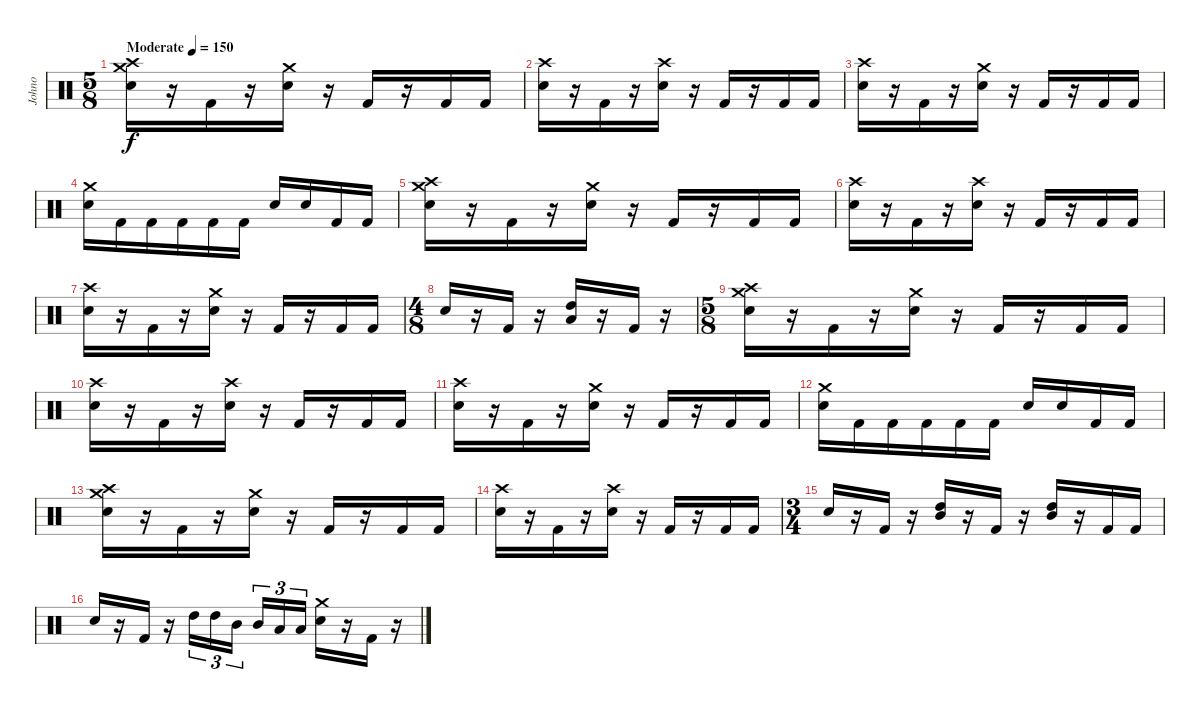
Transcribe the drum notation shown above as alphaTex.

\track ("Johno" "Johno") {instrument percussion}
\staff {score}
\articulation defaults
\ts (5 8)
\tempo (150 "Moderate")
\clef neutral
\ks c
("Crash high (hit)" "Crash medium (hit)" "Electric Snare (hit)").16{dy f} r.16 "Kick (hit) 2".16 r.16 ("Crash medium (hit)" "Electric Snare (hit)").16 r.16 "Kick (hit) 2".16 r.16 "Kick (hit) 2".16 "Kick (hit) 2".16 |
("Crash high (hit)" "Electric Snare (hit)").16 r.16 "Kick (hit) 2".16 r.16 ("Crash high (hit)" "Electric Snare (hit)").16 r.16 "Kick (hit) 2".16 r.16 "Kick (hit) 2".16 "Kick (hit) 2".16 |
("Crash high (hit)" "Electric Snare (hit)").16 r.16 "Kick (hit) 2".16 r.16 ("Crash medium (hit)" "Electric Snare (hit)").16 r.16 "Kick (hit) 2".16 r.16 "Kick (hit) 2".16 "Kick (hit) 2".16 |
("Crash medium (hit)" "Electric Snare (hit)").16 "Kick (hit) 2".16 "Kick (hit) 2".16 "Kick (hit) 2".16 "Kick (hit) 2".16 "Kick (hit) 2".16 "Electric Snare (hit)".16 "Electric Snare (hit)".16 "Kick (hit) 2".16 "Kick (hit) 2".16 |
("Crash high (hit)" "Crash medium (hit)" "Electric Snare (hit)").16 r.16 "Kick (hit) 2".16 r.16 ("Crash medium (hit)" "Electric Snare (hit)").16 r.16 "Kick (hit) 2".16 r.16 "Kick (hit) 2".16 "Kick (hit) 2".16 |
("Crash high (hit)" "Electric Snare (hit)").16 r.16 "Kick (hit) 2".16 r.16 ("Crash high (hit)" "Electric Snare (hit)").16 r.16 "Kick (hit) 2".16 r.16 "Kick (hit) 2".16 "Kick (hit) 2".16 |
("Crash high (hit)" "Electric Snare (hit)").16 r.16 "Kick (hit) 2".16 r.16 ("Crash medium (hit)" "Electric Snare (hit)").16 r.16 "Kick (hit) 2".16 r.16 "Kick (hit) 2".16 "Kick (hit) 2".16 |
\ts (4 8)
"Electric Snare (hit)".16 r.16 "Kick (hit) 2".16 r.16 ("Low Floor Tom (hit)" "High Tom (hit)").16 r.16 "Kick (hit) 2".16 r.16 |
\ts (5 8)
("Crash high (hit)" "Crash medium (hit)" "Electric Snare (hit)").16 r.16 "Kick (hit) 2".16 r.16 ("Crash medium (hit)" "Electric Snare (hit)").16 r.16 "Kick (hit) 2".16 r.16 "Kick (hit) 2".16 "Kick (hit) 2".16 |
("Crash high (hit)" "Electric Snare (hit)").16 r.16 "Kick (hit) 2".16 r.16 ("Crash high (hit)" "Electric Snare (hit)").16 r.16 "Kick (hit) 2".16 r.16 "Kick (hit) 2".16 "Kick (hit) 2".16 |
("Crash high (hit)" "Electric Snare (hit)").16 r.16 "Kick (hit) 2".16 r.16 ("Crash medium (hit)" "Electric Snare (hit)").16 r.16 "Kick (hit) 2".16 r.16 "Kick (hit) 2".16 "Kick (hit) 2".16 |
("Crash medium (hit)" "Electric Snare (hit)").16 "Kick (hit) 2".16 "Kick (hit) 2".16 "Kick (hit) 2".16 "Kick (hit) 2".16 "Kick (hit) 2".16 "Electric Snare (hit)".16 "Electric Snare (hit)".16 "Kick (hit) 2".16 "Kick (hit) 2".16 |
("Crash high (hit)" "Crash medium (hit)" "Electric Snare (hit)").16 r.16 "Kick (hit) 2".16 r.16 ("Crash medium (hit)" "Electric Snare (hit)").16 r.16 "Kick (hit) 2".16 r.16 "Kick (hit) 2".16 "Kick (hit) 2".16 |
("Crash high (hit)" "Electric Snare (hit)").16 r.16 "Kick (hit) 2".16 r.16 ("Crash high (hit)" "Electric Snare (hit)").16 r.16 "Kick (hit) 2".16 r.16 "Kick (hit) 2".16 "Kick (hit) 2".16 |
\ts (3 4)
"Electric Snare (hit)".16 r.16 "Kick (hit) 2".16 r.16 ("High Tom (hit)" "Mid Tom (hit)").16 r.16 "Kick (hit) 2".16 r.16 ("High Tom (hit)" "Mid Tom (hit)").16 r.16 "Kick (hit) 2".16 "Kick (hit) 2".16 |
"Electric Snare (hit)".16 r.16 "Kick (hit) 2".16 r.16 "High Tom (hit)".16{tu (3 2)} "High Tom (hit)".16{tu (3 2)} "Mid Tom (hit)".16{tu (3 2) beam splitsecondary} "Mid Tom (hit)".16{tu (3 2)} "Low Floor Tom (hit)".16{tu (3 2)} "Low Floor Tom (hit)".16{tu (3 2)} ("Crash medium (hit)" "Electric Snare (hit)").16 r.16 "Kick (hit) 2".16 r.16
